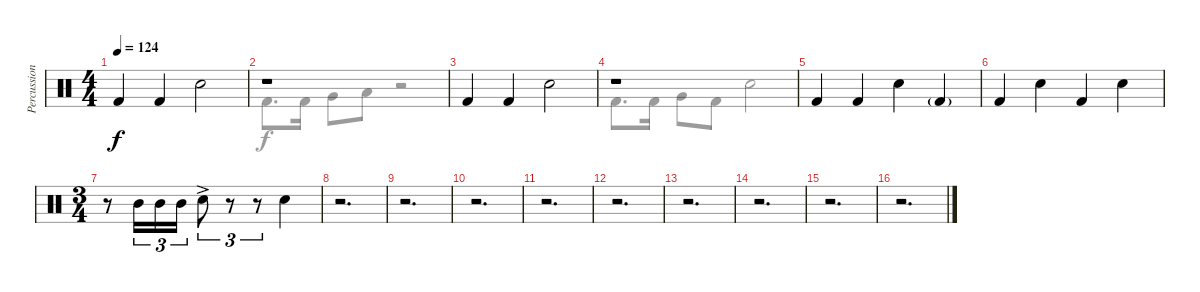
\track ("Percussion" "Percussion") {instrument percussion}
\staff {score}
\articulation defaults
\voice
\ts (4 4)
\tempo 124
\clef neutral
\ks c "Kick (hit) 2".4{dy f} "Kick (hit) 2".4 "Snare (hit) 2".2
|
r.1 |
"Kick (hit) 2".4 "Kick (hit) 2".4 "Snare (hit) 2".2 |
r.1 |
"Kick (hit) 2".4 "Kick (hit) 2".4 "Snare (hit) 2".4 "Kick (hit) 2"{g}.4 |
"Kick (hit) 2".4 "Snare (hit) 2".4 "Kick (hit) 2".4 "Snare (hit) 2".4 |
\ts (3 4)
r.8 "Mid Tom (hit)".16{tu (3 2)} "Mid Tom (hit)".16{tu (3 2)} "Mid Tom (hit)".16{tu (3 2)} "Snare (hit) 2"{ac}.8{tu (3 2)} r.8{tu (3 2)} r.8{tu (3 2)} "Snare (hit) 2".4 |
r.2{d} |
r.2{d} |
r.2{d} |
r.2{d} |
r.2{d} |
r.2{d} |
r.2{d} |
r.2{d} |
r.2{d}
\voice
\clef neutral
\ottava regular
\simile none
\ks c
|
"Kick (hit) 2".8{d} "Kick (hit) 2".16 "Very Low Tom (hit)".8 "Low Floor Tom (hit)".8 r.2 |
|
"Kick (hit) 2".8{d} "Kick (hit) 2".16 "Very Low Tom (hit)".8 "Kick (hit) 2".8 "Snare (hit) 2".2 |
|
|
|
|
|
|
|
|
|
|
|
